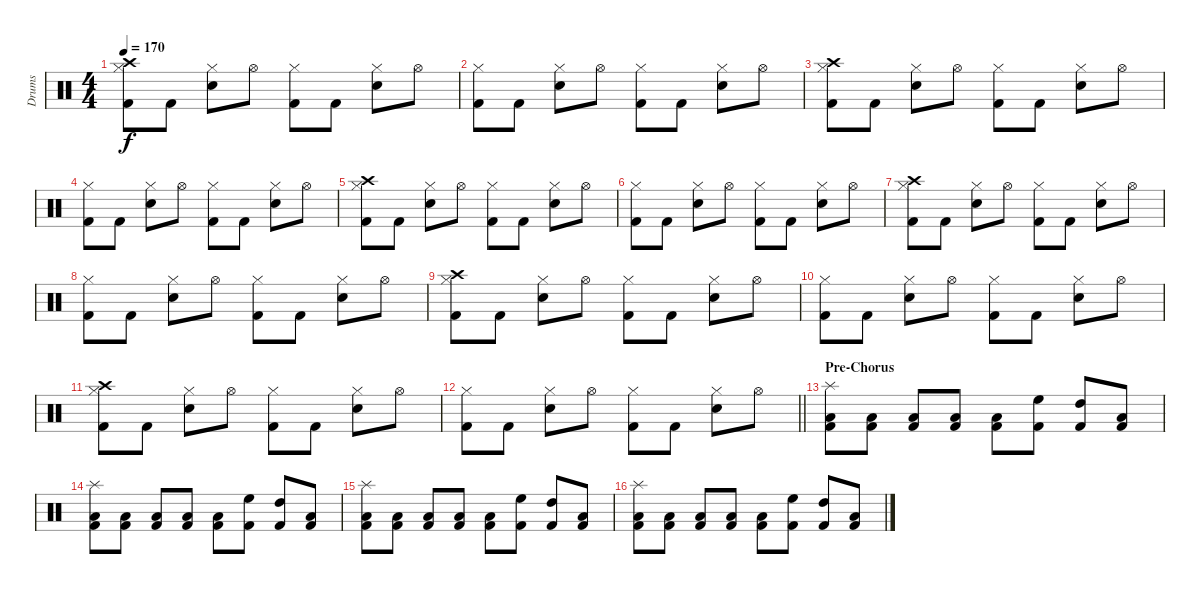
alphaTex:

\track ("Drums" "Drums") {instrument percussion}
\staff {score}
\articulation defaults
\ts (4 4)
\tempo 170
\clef neutral
\ks c
("Crash high (hit)" "Kick (hit) 2" "Hi-Hat (closed)").8{dy f} "Kick (hit) 2".8 ("Snare (hit) 2" "Hi-Hat (closed)").8 "Hi-Hat (open)".8 ("Kick (hit) 2" "Hi-Hat (closed)").8 "Kick (hit) 2".8 ("Snare (hit) 2" "Hi-Hat (closed)").8 "Hi-Hat (open)".8 |
("Kick (hit) 2" "Hi-Hat (closed)").8 "Kick (hit) 2".8 ("Snare (hit) 2" "Hi-Hat (closed)").8 "Hi-Hat (open)".8 ("Kick (hit) 2" "Hi-Hat (closed)").8 "Kick (hit) 2".8 ("Snare (hit) 2" "Hi-Hat (closed)").8 "Hi-Hat (open)".8 |
("Crash high (hit)" "Kick (hit) 2" "Hi-Hat (closed)").8 "Kick (hit) 2".8 ("Snare (hit) 2" "Hi-Hat (closed)").8 "Hi-Hat (open)".8 ("Kick (hit) 2" "Hi-Hat (closed)").8 "Kick (hit) 2".8 ("Snare (hit) 2" "Hi-Hat (closed)").8 "Hi-Hat (open)".8 |
("Kick (hit) 2" "Hi-Hat (closed)").8 "Kick (hit) 2".8 ("Snare (hit) 2" "Hi-Hat (closed)").8 "Hi-Hat (open)".8 ("Kick (hit) 2" "Hi-Hat (closed)").8 "Kick (hit) 2".8 ("Snare (hit) 2" "Hi-Hat (closed)").8 "Hi-Hat (open)".8 |
("Crash high (hit)" "Kick (hit) 2" "Hi-Hat (closed)").8 "Kick (hit) 2".8 ("Snare (hit) 2" "Hi-Hat (closed)").8 "Hi-Hat (open)".8 ("Kick (hit) 2" "Hi-Hat (closed)").8 "Kick (hit) 2".8 ("Snare (hit) 2" "Hi-Hat (closed)").8 "Hi-Hat (open)".8 |
("Kick (hit) 2" "Hi-Hat (closed)").8 "Kick (hit) 2".8 ("Snare (hit) 2" "Hi-Hat (closed)").8 "Hi-Hat (open)".8 ("Kick (hit) 2" "Hi-Hat (closed)").8 "Kick (hit) 2".8 ("Snare (hit) 2" "Hi-Hat (closed)").8 "Hi-Hat (open)".8 |
("Crash high (hit)" "Kick (hit) 2" "Hi-Hat (closed)").8 "Kick (hit) 2".8 ("Snare (hit) 2" "Hi-Hat (closed)").8 "Hi-Hat (open)".8 ("Kick (hit) 2" "Hi-Hat (closed)").8 "Kick (hit) 2".8 ("Snare (hit) 2" "Hi-Hat (closed)").8 "Hi-Hat (open)".8 |
("Kick (hit) 2" "Hi-Hat (closed)").8 "Kick (hit) 2".8 ("Snare (hit) 2" "Hi-Hat (closed)").8 "Hi-Hat (open)".8 ("Kick (hit) 2" "Hi-Hat (closed)").8 "Kick (hit) 2".8 ("Snare (hit) 2" "Hi-Hat (closed)").8 "Hi-Hat (open)".8 |
("Crash high (hit)" "Kick (hit) 2" "Hi-Hat (closed)").8 "Kick (hit) 2".8 ("Snare (hit) 2" "Hi-Hat (closed)").8 "Hi-Hat (open)".8 ("Kick (hit) 2" "Hi-Hat (closed)").8 "Kick (hit) 2".8 ("Snare (hit) 2" "Hi-Hat (closed)").8 "Hi-Hat (open)".8 |
("Kick (hit) 2" "Hi-Hat (closed)").8 "Kick (hit) 2".8 ("Snare (hit) 2" "Hi-Hat (closed)").8 "Hi-Hat (open)".8 ("Kick (hit) 2" "Hi-Hat (closed)").8 "Kick (hit) 2".8 ("Snare (hit) 2" "Hi-Hat (closed)").8 "Hi-Hat (open)".8 |
("Crash high (hit)" "Kick (hit) 2" "Hi-Hat (closed)").8 "Kick (hit) 2".8 ("Snare (hit) 2" "Hi-Hat (closed)").8 "Hi-Hat (open)".8 ("Kick (hit) 2" "Hi-Hat (closed)").8 "Kick (hit) 2".8 ("Snare (hit) 2" "Hi-Hat (closed)").8 "Hi-Hat (open)".8 |
\barLineRight lightlight
("Kick (hit) 2" "Hi-Hat (closed)").8 "Kick (hit) 2".8 ("Snare (hit) 2" "Hi-Hat (closed)").8 "Hi-Hat (open)".8 ("Kick (hit) 2" "Hi-Hat (closed)").8 "Kick (hit) 2".8 ("Snare (hit) 2" "Hi-Hat (closed)").8 "Hi-Hat (open)".8 |
\section ("" "Pre-Chorus")
("Low Floor Tom (hit)" "Splash (hit)" "Kick (hit) 2").8 ("Low Floor Tom (hit)" "Kick (hit) 2").8 ("Low Floor Tom (hit)" "Kick (hit) 2").8 ("Low Floor Tom (hit)" "Kick (hit) 2").8 ("Low Floor Tom (hit)" "Kick (hit) 2").8 ("High Floor Tom (hit)" "Kick (hit) 2").8 ("High Tom (hit)" "Kick (hit) 2").8 ("Low Tom (hit)" "Kick (hit) 2").8 |
("Low Floor Tom (hit)" "Splash (hit)" "Kick (hit) 2").8 ("Low Floor Tom (hit)" "Kick (hit) 2").8 ("Low Floor Tom (hit)" "Kick (hit) 2").8 ("Low Floor Tom (hit)" "Kick (hit) 2").8 ("Low Floor Tom (hit)" "Kick (hit) 2").8 ("High Floor Tom (hit)" "Kick (hit) 2").8 ("High Tom (hit)" "Kick (hit) 2").8 ("Low Tom (hit)" "Kick (hit) 2").8 |
("Low Floor Tom (hit)" "Splash (hit)" "Kick (hit) 2").8 ("Low Floor Tom (hit)" "Kick (hit) 2").8 ("Low Floor Tom (hit)" "Kick (hit) 2").8 ("Low Floor Tom (hit)" "Kick (hit) 2").8 ("Low Floor Tom (hit)" "Kick (hit) 2").8 ("High Floor Tom (hit)" "Kick (hit) 2").8 ("High Tom (hit)" "Kick (hit) 2").8 ("Low Tom (hit)" "Kick (hit) 2").8 |
("Low Floor Tom (hit)" "Splash (hit)" "Kick (hit) 2").8 ("Low Floor Tom (hit)" "Kick (hit) 2").8 ("Low Floor Tom (hit)" "Kick (hit) 2").8 ("Low Floor Tom (hit)" "Kick (hit) 2").8 ("Low Floor Tom (hit)" "Kick (hit) 2").8 ("High Floor Tom (hit)" "Kick (hit) 2").8 ("High Tom (hit)" "Kick (hit) 2").8 ("Low Tom (hit)" "Kick (hit) 2").8
